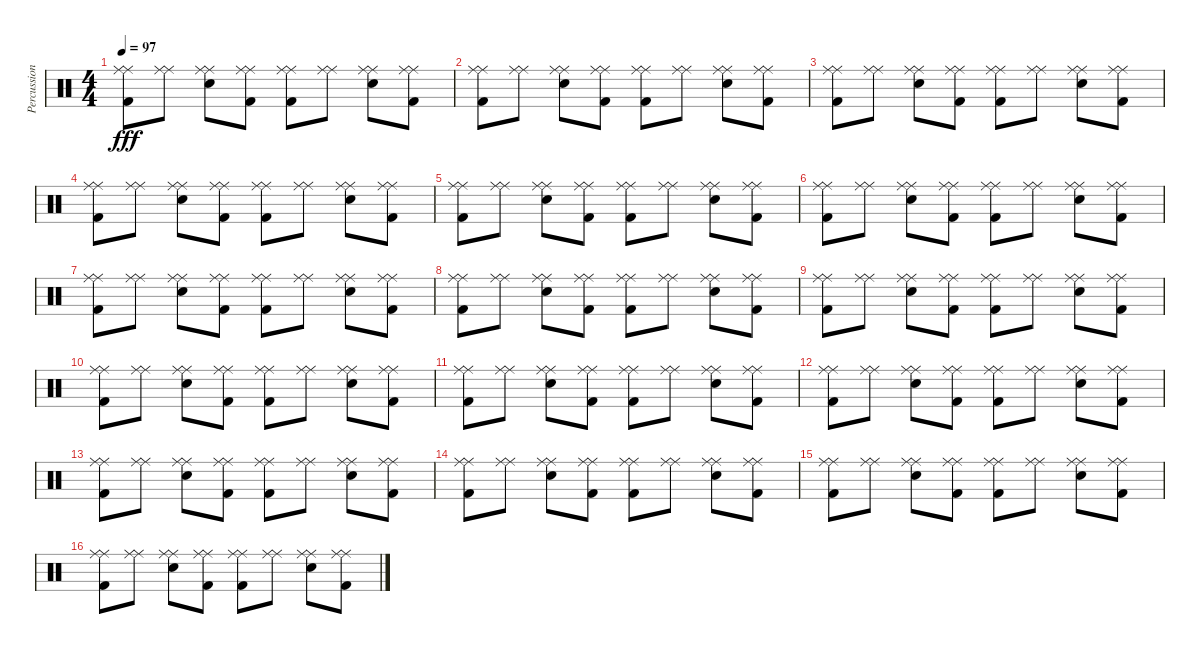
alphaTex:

\track ("Percussions" "Percussion") {instrument percussion}
\staff {score}
\articulation defaults
\ts (4 4)
\tempo 97
\clef neutral
\ks c
("Ride (middle)" "Ride (middle)" "Kick (hit) 2").8{dy fff} ("Ride (middle)" "Ride (middle)").8 ("Ride (middle)" "Ride (middle)" "Electric Snare (hit)").8 ("Ride (middle)" "Ride (middle)" "Kick (hit) 2").8 ("Ride (middle)" "Ride (middle)" "Kick (hit) 2").8 ("Ride (middle)" "Ride (middle)").8 ("Ride (middle)" "Ride (middle)" "Electric Snare (hit)").8 ("Ride (middle)" "Ride (middle)" "Kick (hit) 2").8 |
("Ride (middle)" "Ride (middle)" "Kick (hit) 2").8 ("Ride (middle)" "Ride (middle)").8 ("Ride (middle)" "Ride (middle)" "Electric Snare (hit)").8 ("Ride (middle)" "Ride (middle)" "Kick (hit) 2").8 ("Ride (middle)" "Ride (middle)" "Kick (hit) 2").8 ("Ride (middle)" "Ride (middle)").8 ("Ride (middle)" "Ride (middle)" "Electric Snare (hit)").8 ("Ride (middle)" "Ride (middle)" "Kick (hit) 2").8 |
("Ride (middle)" "Ride (middle)" "Kick (hit) 2").8 ("Ride (middle)" "Ride (middle)").8 ("Ride (middle)" "Ride (middle)" "Electric Snare (hit)").8 ("Ride (middle)" "Ride (middle)" "Kick (hit) 2").8 ("Ride (middle)" "Ride (middle)" "Kick (hit) 2").8 ("Ride (middle)" "Ride (middle)").8 ("Ride (middle)" "Ride (middle)" "Electric Snare (hit)").8 ("Ride (middle)" "Ride (middle)" "Kick (hit) 2").8 |
("Ride (middle)" "Ride (middle)" "Kick (hit) 2").8 ("Ride (middle)" "Ride (middle)").8 ("Ride (middle)" "Ride (middle)" "Electric Snare (hit)").8 ("Ride (middle)" "Ride (middle)" "Kick (hit) 2").8 ("Ride (middle)" "Ride (middle)" "Kick (hit) 2").8 ("Ride (middle)" "Ride (middle)").8 ("Ride (middle)" "Ride (middle)" "Electric Snare (hit)").8 ("Ride (middle)" "Ride (middle)" "Kick (hit) 2").8 |
("Ride (middle)" "Ride (middle)" "Kick (hit) 2").8 ("Ride (middle)" "Ride (middle)").8 ("Ride (middle)" "Ride (middle)" "Electric Snare (hit)").8 ("Ride (middle)" "Ride (middle)" "Kick (hit) 2").8 ("Ride (middle)" "Ride (middle)" "Kick (hit) 2").8 ("Ride (middle)" "Ride (middle)").8 ("Ride (middle)" "Ride (middle)" "Electric Snare (hit)").8 ("Ride (middle)" "Ride (middle)" "Kick (hit) 2").8 |
("Ride (middle)" "Ride (middle)" "Kick (hit) 2").8 ("Ride (middle)" "Ride (middle)").8 ("Ride (middle)" "Ride (middle)" "Electric Snare (hit)").8 ("Ride (middle)" "Ride (middle)" "Kick (hit) 2").8 ("Ride (middle)" "Ride (middle)" "Kick (hit) 2").8 ("Ride (middle)" "Ride (middle)").8 ("Ride (middle)" "Ride (middle)" "Electric Snare (hit)").8 ("Ride (middle)" "Ride (middle)" "Kick (hit) 2").8 |
("Ride (middle)" "Ride (middle)" "Kick (hit) 2").8 ("Ride (middle)" "Ride (middle)").8 ("Ride (middle)" "Ride (middle)" "Electric Snare (hit)").8 ("Ride (middle)" "Ride (middle)" "Kick (hit) 2").8 ("Ride (middle)" "Ride (middle)" "Kick (hit) 2").8 ("Ride (middle)" "Ride (middle)").8 ("Ride (middle)" "Ride (middle)" "Electric Snare (hit)").8 ("Ride (middle)" "Ride (middle)" "Kick (hit) 2").8 |
("Ride (middle)" "Ride (middle)" "Kick (hit) 2").8 ("Ride (middle)" "Ride (middle)").8 ("Ride (middle)" "Ride (middle)" "Electric Snare (hit)").8 ("Ride (middle)" "Ride (middle)" "Kick (hit) 2").8 ("Ride (middle)" "Ride (middle)" "Kick (hit) 2").8 ("Ride (middle)" "Ride (middle)").8 ("Ride (middle)" "Ride (middle)" "Electric Snare (hit)").8 ("Ride (middle)" "Ride (middle)" "Kick (hit) 2").8 |
("Ride (middle)" "Ride (middle)" "Kick (hit) 2").8 ("Ride (middle)" "Ride (middle)").8 ("Ride (middle)" "Ride (middle)" "Electric Snare (hit)").8 ("Ride (middle)" "Ride (middle)" "Kick (hit) 2").8 ("Ride (middle)" "Ride (middle)" "Kick (hit) 2").8 ("Ride (middle)" "Ride (middle)").8 ("Ride (middle)" "Ride (middle)" "Electric Snare (hit)").8 ("Ride (middle)" "Ride (middle)" "Kick (hit) 2").8 |
("Ride (middle)" "Ride (middle)" "Kick (hit) 2").8 ("Ride (middle)" "Ride (middle)").8 ("Ride (middle)" "Ride (middle)" "Electric Snare (hit)").8 ("Ride (middle)" "Ride (middle)" "Kick (hit) 2").8 ("Ride (middle)" "Ride (middle)" "Kick (hit) 2").8 ("Ride (middle)" "Ride (middle)").8 ("Ride (middle)" "Ride (middle)" "Electric Snare (hit)").8 ("Ride (middle)" "Ride (middle)" "Kick (hit) 2").8 |
("Ride (middle)" "Ride (middle)" "Kick (hit) 2").8 ("Ride (middle)" "Ride (middle)").8 ("Ride (middle)" "Ride (middle)" "Electric Snare (hit)").8 ("Ride (middle)" "Ride (middle)" "Kick (hit) 2").8 ("Ride (middle)" "Ride (middle)" "Kick (hit) 2").8 ("Ride (middle)" "Ride (middle)").8 ("Ride (middle)" "Ride (middle)" "Electric Snare (hit)").8 ("Ride (middle)" "Ride (middle)" "Kick (hit) 2").8 |
("Ride (middle)" "Ride (middle)" "Kick (hit) 2").8 ("Ride (middle)" "Ride (middle)").8 ("Ride (middle)" "Ride (middle)" "Electric Snare (hit)").8 ("Ride (middle)" "Ride (middle)" "Kick (hit) 2").8 ("Ride (middle)" "Ride (middle)" "Kick (hit) 2").8 ("Ride (middle)" "Ride (middle)").8 ("Ride (middle)" "Ride (middle)" "Electric Snare (hit)").8 ("Ride (middle)" "Ride (middle)" "Kick (hit) 2").8 |
("Ride (middle)" "Ride (middle)" "Kick (hit) 2").8 ("Ride (middle)" "Ride (middle)").8 ("Ride (middle)" "Ride (middle)" "Electric Snare (hit)").8 ("Ride (middle)" "Ride (middle)" "Kick (hit) 2").8 ("Ride (middle)" "Ride (middle)" "Kick (hit) 2").8 ("Ride (middle)" "Ride (middle)").8 ("Ride (middle)" "Ride (middle)" "Electric Snare (hit)").8 ("Ride (middle)" "Ride (middle)" "Kick (hit) 2").8 |
("Ride (middle)" "Ride (middle)" "Kick (hit) 2").8 ("Ride (middle)" "Ride (middle)").8 ("Ride (middle)" "Ride (middle)" "Electric Snare (hit)").8 ("Ride (middle)" "Ride (middle)" "Kick (hit) 2").8 ("Ride (middle)" "Ride (middle)" "Kick (hit) 2").8 ("Ride (middle)" "Ride (middle)").8 ("Ride (middle)" "Ride (middle)" "Electric Snare (hit)").8 ("Ride (middle)" "Ride (middle)" "Kick (hit) 2").8 |
("Ride (middle)" "Ride (middle)" "Kick (hit) 2").8 ("Ride (middle)" "Ride (middle)").8 ("Ride (middle)" "Ride (middle)" "Electric Snare (hit)").8 ("Ride (middle)" "Ride (middle)" "Kick (hit) 2").8 ("Ride (middle)" "Ride (middle)" "Kick (hit) 2").8 ("Ride (middle)" "Ride (middle)").8 ("Ride (middle)" "Ride (middle)" "Electric Snare (hit)").8 ("Ride (middle)" "Ride (middle)" "Kick (hit) 2").8 |
("Ride (middle)" "Ride (middle)" "Kick (hit) 2").8 ("Ride (middle)" "Ride (middle)").8 ("Ride (middle)" "Ride (middle)" "Electric Snare (hit)").8 ("Ride (middle)" "Ride (middle)" "Kick (hit) 2").8 ("Ride (middle)" "Ride (middle)" "Kick (hit) 2").8 ("Ride (middle)" "Ride (middle)").8 ("Ride (middle)" "Ride (middle)" "Electric Snare (hit)").8 ("Ride (middle)" "Ride (middle)" "Kick (hit) 2").8
